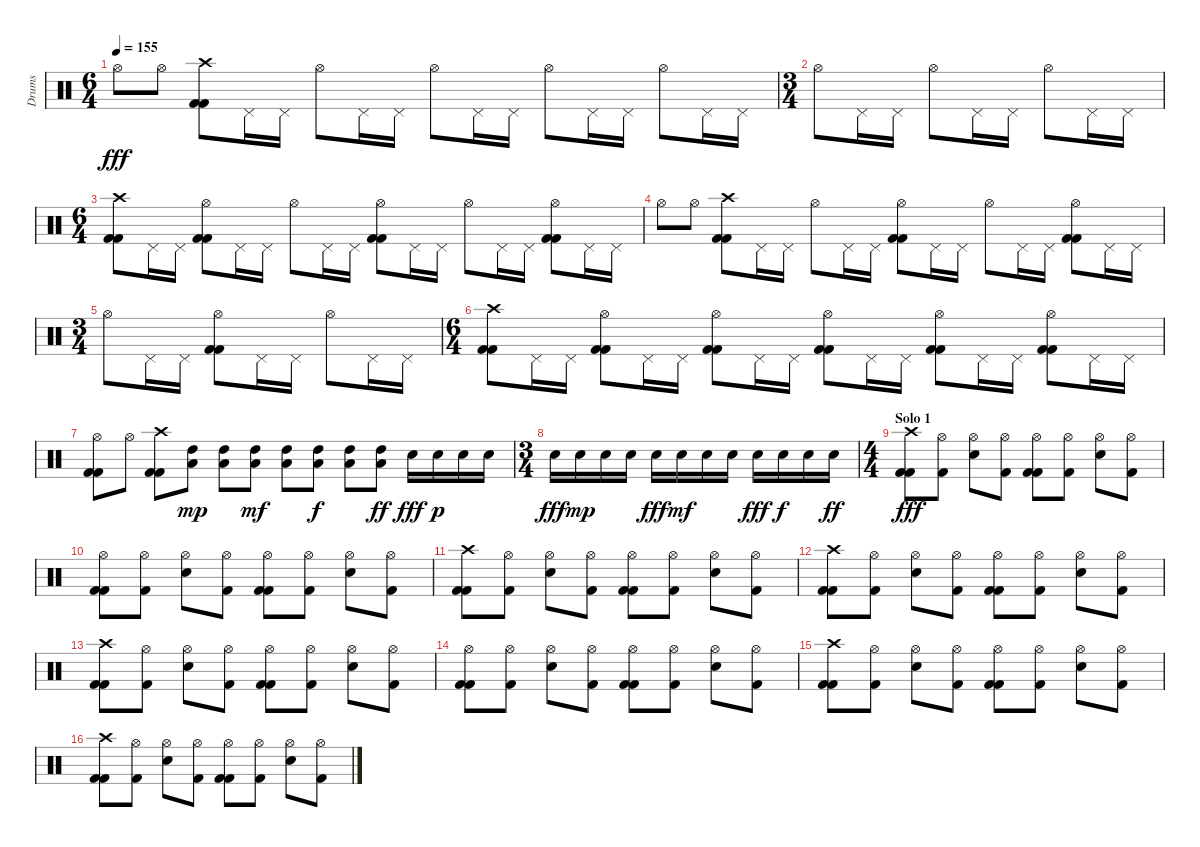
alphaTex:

\track ("Drums" "Drums") {instrument percussion}
\staff {score}
\articulation defaults
\ts (6 4)
\tempo 155
\clef neutral
\ks c "Hi-Hat (open)".8{dy fff} "Hi-Hat (open)".8
("Crash high (hit)" "Kick (hit) 2" "Kick (hit) 2").8 "Pedal Hi-Hat (hit)".16 "Pedal Hi-Hat (hit)".16 "Hi-Hat (open)".8 "Pedal Hi-Hat (hit)".16 "Pedal Hi-Hat (hit)".16 "Hi-Hat (open)".8 "Pedal Hi-Hat (hit)".16 "Pedal Hi-Hat (hit)".16 "Hi-Hat (open)".8 "Pedal Hi-Hat (hit)".16 "Pedal Hi-Hat (hit)".16 "Hi-Hat (open)".8 "Pedal Hi-Hat (hit)".16 "Pedal Hi-Hat (hit)".16 |
\ts (3 4)
"Hi-Hat (open)".8 "Pedal Hi-Hat (hit)".16 "Pedal Hi-Hat (hit)".16 "Hi-Hat (open)".8 "Pedal Hi-Hat (hit)".16 "Pedal Hi-Hat (hit)".16 "Hi-Hat (open)".8 "Pedal Hi-Hat (hit)".16 "Pedal Hi-Hat (hit)".16 |
\ts (6 4)
("Crash high (hit)" "Kick (hit) 2" "Kick (hit) 2").8 "Pedal Hi-Hat (hit)".16 "Pedal Hi-Hat (hit)".16 ("Hi-Hat (open)" "Kick (hit) 2" "Kick (hit) 2").8 "Pedal Hi-Hat (hit)".16 "Pedal Hi-Hat (hit)".16 "Hi-Hat (open)".8 "Pedal Hi-Hat (hit)".16 "Pedal Hi-Hat (hit)".16 ("Hi-Hat (open)" "Kick (hit) 2" "Kick (hit) 2").8 "Pedal Hi-Hat (hit)".16 "Pedal Hi-Hat (hit)".16 "Hi-Hat (open)".8 "Pedal Hi-Hat (hit)".16 "Pedal Hi-Hat (hit)".16 ("Hi-Hat (open)" "Kick (hit) 2" "Kick (hit) 2").8 "Pedal Hi-Hat (hit)".16 "Pedal Hi-Hat (hit)".16 |
"Hi-Hat (open)".8 "Hi-Hat (open)".8 ("Crash high (hit)" "Kick (hit) 2" "Kick (hit) 2").8 "Pedal Hi-Hat (hit)".16 "Pedal Hi-Hat (hit)".16 "Hi-Hat (open)".8 "Pedal Hi-Hat (hit)".16 "Pedal Hi-Hat (hit)".16 ("Hi-Hat (open)" "Kick (hit) 2" "Kick (hit) 2").8 "Pedal Hi-Hat (hit)".16 "Pedal Hi-Hat (hit)".16 "Hi-Hat (open)".8 "Pedal Hi-Hat (hit)".16 "Pedal Hi-Hat (hit)".16 ("Hi-Hat (open)" "Kick (hit) 2" "Kick (hit) 2").8 "Pedal Hi-Hat (hit)".16 "Pedal Hi-Hat (hit)".16 |
\ts (3 4)
"Hi-Hat (open)".8 "Pedal Hi-Hat (hit)".16 "Pedal Hi-Hat (hit)".16 ("Hi-Hat (open)" "Kick (hit) 2" "Kick (hit) 2").8 "Pedal Hi-Hat (hit)".16 "Pedal Hi-Hat (hit)".16 "Hi-Hat (open)".8 "Pedal Hi-Hat (hit)".16 "Pedal Hi-Hat (hit)".16 |
\ts (6 4)
("Crash high (hit)" "Kick (hit) 2" "Kick (hit) 2").8 "Pedal Hi-Hat (hit)".16 "Pedal Hi-Hat (hit)".16 ("Hi-Hat (open)" "Kick (hit) 2" "Kick (hit) 2").8 "Pedal Hi-Hat (hit)".16 "Pedal Hi-Hat (hit)".16 ("Hi-Hat (open)" "Kick (hit) 2" "Kick (hit) 2").8 "Pedal Hi-Hat (hit)".16 "Pedal Hi-Hat (hit)".16 ("Hi-Hat (open)" "Kick (hit) 2" "Kick (hit) 2").8 "Pedal Hi-Hat (hit)".16 "Pedal Hi-Hat (hit)".16 ("Hi-Hat (open)" "Kick (hit) 2" "Kick (hit) 2").8 "Pedal Hi-Hat (hit)".16 "Pedal Hi-Hat (hit)".16 ("Hi-Hat (open)" "Kick (hit) 2" "Kick (hit) 2").8 "Pedal Hi-Hat (hit)".16 "Pedal Hi-Hat (hit)".16 |
("Hi-Hat (open)" "Kick (hit) 2" "Kick (hit) 2").8 "Hi-Hat (open)".8 ("Crash high (hit)" "Kick (hit) 2" "Kick (hit) 2").8 ("High Tom (hit)" "Low Tom (hit)").8{dy mp} ("High Tom (hit)" "Low Tom (hit)").8 ("High Tom (hit)" "Low Tom (hit)").8{dy mf} ("High Tom (hit)" "Low Tom (hit)").8 ("High Tom (hit)" "Low Tom (hit)").8{dy f} ("High Tom (hit)" "Low Tom (hit)").8 ("High Tom (hit)" "Low Tom (hit)").8{dy ff} "Snare (hit) 2".16{dy fff} "Snare (hit) 2".16{dy p} "Snare (hit) 2".16 "Snare (hit) 2".16 |
\ts (3 4)
"Snare (hit) 2".16{dy fff} "Snare (hit) 2".16{dy mp} "Snare (hit) 2".16 "Snare (hit) 2".16 "Snare (hit) 2".16{dy fff} "Snare (hit) 2".16{dy mf} "Snare (hit) 2".16 "Snare (hit) 2".16 "Snare (hit) 2".16{dy fff} "Snare (hit) 2".16{dy f} "Snare (hit) 2".16 "Snare (hit) 2".16{dy ff} |
\ts (4 4)
\section ("" "Solo 1")
("Crash high (hit)" "Kick (hit) 2" "Kick (hit) 2").8{dy fff} ("Hi-Hat (open)" "Kick (hit) 2").8 ("Hi-Hat (open)" "Snare (hit) 2").8 ("Hi-Hat (open)" "Kick (hit) 2").8 ("Hi-Hat (open)" "Kick (hit) 2" "Kick (hit) 2").8 ("Hi-Hat (open)" "Kick (hit) 2").8 ("Hi-Hat (open)" "Snare (hit) 2").8 ("Hi-Hat (open)" "Kick (hit) 2").8 |
("Hi-Hat (open)" "Kick (hit) 2" "Kick (hit) 2").8 ("Hi-Hat (open)" "Kick (hit) 2").8 ("Hi-Hat (open)" "Snare (hit) 2").8 ("Hi-Hat (open)" "Kick (hit) 2").8 ("Hi-Hat (open)" "Kick (hit) 2" "Kick (hit) 2").8 ("Hi-Hat (open)" "Kick (hit) 2").8 ("Hi-Hat (open)" "Snare (hit) 2").8 ("Hi-Hat (open)" "Kick (hit) 2").8 |
("Crash high (hit)" "Kick (hit) 2" "Kick (hit) 2").8 ("Hi-Hat (open)" "Kick (hit) 2").8 ("Hi-Hat (open)" "Snare (hit) 2").8 ("Hi-Hat (open)" "Kick (hit) 2").8 ("Hi-Hat (open)" "Kick (hit) 2" "Kick (hit) 2").8 ("Hi-Hat (open)" "Kick (hit) 2").8 ("Hi-Hat (open)" "Snare (hit) 2").8 ("Hi-Hat (open)" "Kick (hit) 2").8 |
("Crash high (hit)" "Kick (hit) 2" "Kick (hit) 2").8 ("Hi-Hat (open)" "Kick (hit) 2").8 ("Hi-Hat (open)" "Snare (hit) 2").8 ("Hi-Hat (open)" "Kick (hit) 2").8 ("Hi-Hat (open)" "Kick (hit) 2" "Kick (hit) 2").8 ("Hi-Hat (open)" "Kick (hit) 2").8 ("Hi-Hat (open)" "Snare (hit) 2").8 ("Hi-Hat (open)" "Kick (hit) 2").8 |
("Crash high (hit)" "Kick (hit) 2" "Kick (hit) 2").8 ("Hi-Hat (open)" "Kick (hit) 2").8 ("Hi-Hat (open)" "Snare (hit) 2").8 ("Hi-Hat (open)" "Kick (hit) 2").8 ("Hi-Hat (open)" "Kick (hit) 2" "Kick (hit) 2").8 ("Hi-Hat (open)" "Kick (hit) 2").8 ("Hi-Hat (open)" "Snare (hit) 2").8 ("Hi-Hat (open)" "Kick (hit) 2").8 |
("Hi-Hat (open)" "Kick (hit) 2" "Kick (hit) 2").8 ("Hi-Hat (open)" "Kick (hit) 2").8 ("Hi-Hat (open)" "Snare (hit) 2").8 ("Hi-Hat (open)" "Kick (hit) 2").8 ("Hi-Hat (open)" "Kick (hit) 2" "Kick (hit) 2").8 ("Hi-Hat (open)" "Kick (hit) 2").8 ("Hi-Hat (open)" "Snare (hit) 2").8 ("Hi-Hat (open)" "Kick (hit) 2").8 |
("Crash high (hit)" "Kick (hit) 2" "Kick (hit) 2").8 ("Hi-Hat (open)" "Kick (hit) 2").8 ("Hi-Hat (open)" "Snare (hit) 2").8 ("Hi-Hat (open)" "Kick (hit) 2").8 ("Hi-Hat (open)" "Kick (hit) 2" "Kick (hit) 2").8 ("Hi-Hat (open)" "Kick (hit) 2").8 ("Hi-Hat (open)" "Snare (hit) 2").8 ("Hi-Hat (open)" "Kick (hit) 2").8 |
("Crash high (hit)" "Kick (hit) 2" "Kick (hit) 2").8 ("Hi-Hat (open)" "Kick (hit) 2").8 ("Hi-Hat (open)" "Snare (hit) 2").8 ("Hi-Hat (open)" "Kick (hit) 2").8 ("Hi-Hat (open)" "Kick (hit) 2" "Kick (hit) 2").8 ("Hi-Hat (open)" "Kick (hit) 2").8 ("Hi-Hat (open)" "Snare (hit) 2").8 ("Hi-Hat (open)" "Kick (hit) 2").8
